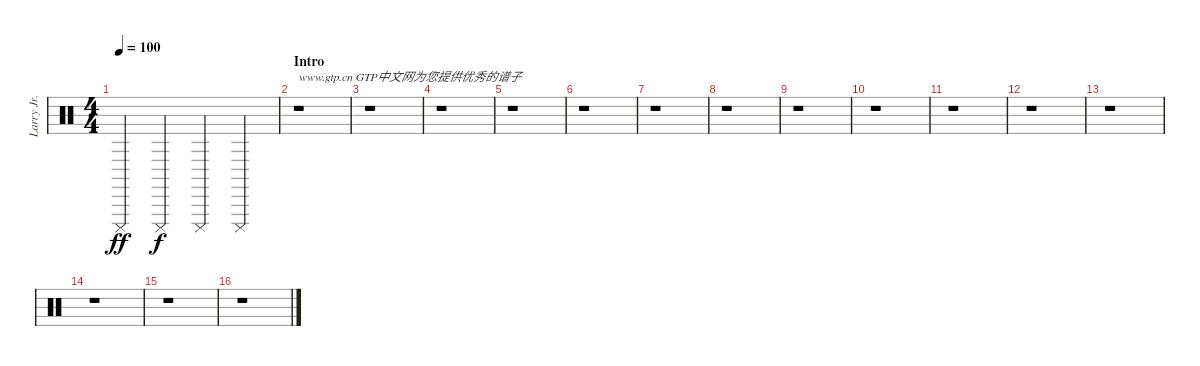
\track ("Larry Jr." "Larry Jr.") {instrument percussion}
\staff {score}
\articulation defaults
\ts (4 4)
\tempo 100
\clef neutral
\ks c "Cuica (mute)".4{dy ff} "Cuica (mute)".4{dy f} "Cuica (mute)".4 "Cuica (mute)".4
|
\section ("" "Intro")
r.1{txt "www.gtp.cn GTP中文网为您提供优秀的谱子"} |
r.1 |
r.1 |
r.1 |
r.1 |
r.1 |
r.1 |
r.1 |
r.1 |
r.1 |
r.1 |
r.1 |
r.1 |
r.1 |
r.1
